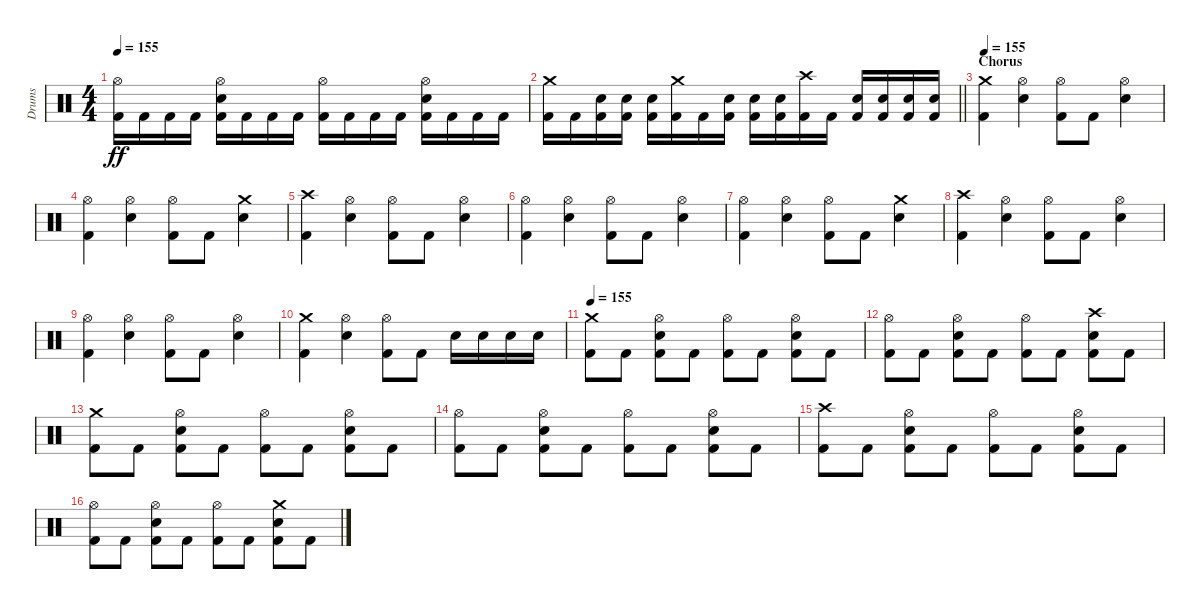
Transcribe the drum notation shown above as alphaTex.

\track ("Drums" "Drums") {solo instrument percussion}
\staff {score}
\articulation defaults
\ts (4 4)
\tempo 155
\clef neutral
\ks c
("Hi-Hat (open)" "Kick (hit) 2").16{dy ff} "Kick (hit) 2".16 "Kick (hit) 2".16 "Kick (hit) 2".16 ("Electric Snare (hit)" "Hi-Hat (open)" "Kick (hit) 2").16 "Kick (hit) 2".16 "Kick (hit) 2".16 "Kick (hit) 2".16 ("Hi-Hat (open)" "Kick (hit) 2").16 "Kick (hit) 2".16 "Kick (hit) 2".16 "Kick (hit) 2".16 ("Electric Snare (hit)" "Hi-Hat (open)" "Kick (hit) 2").16 "Kick (hit) 2".16 "Kick (hit) 2".16 "Kick (hit) 2".16 |
\barLineRight lightlight
("Crash medium (hit)" "Kick (hit) 2").16 "Kick (hit) 2".16 ("Electric Snare (hit)" "Kick (hit) 2").16 ("Electric Snare (hit)" "Kick (hit) 2").16 ("Electric Snare (hit)" "Kick (hit) 2").16 ("Crash medium (hit)" "Kick (hit) 2").16 "Kick (hit) 2".16 ("Electric Snare (hit)" "Kick (hit) 2").16 ("Electric Snare (hit)" "Kick (hit) 2").16 ("Electric Snare (hit)" "Kick (hit) 2").16 ("Crash high (hit)" "Kick (hit) 2").16 "Kick (hit) 2".16 ("Electric Snare (hit)" "Kick (hit) 2").16 ("Electric Snare (hit)" "Kick (hit) 2").16 ("Electric Snare (hit)" "Kick (hit) 2").16 ("Electric Snare (hit)" "Kick (hit) 2").16 |
\section ("" "Chorus")
\tempo 155
("Crash medium (hit)" "Kick (hit) 2").4 ("Hi-Hat (open)" "Electric Snare (hit)").4 ("Hi-Hat (open)" "Kick (hit) 2").8 "Kick (hit) 2".8 ("Hi-Hat (open)" "Electric Snare (hit)").4 |
("Hi-Hat (open)" "Kick (hit) 2").4 ("Hi-Hat (open)" "Electric Snare (hit)").4 ("Hi-Hat (open)" "Kick (hit) 2").8 "Kick (hit) 2".8 ("Crash medium (hit)" "Electric Snare (hit)").4 |
("Crash high (hit)" "Kick (hit) 2").4 ("Hi-Hat (open)" "Electric Snare (hit)").4 ("Hi-Hat (open)" "Kick (hit) 2").8 "Kick (hit) 2".8 ("Hi-Hat (open)" "Electric Snare (hit)").4 |
("Hi-Hat (open)" "Kick (hit) 2").4 ("Hi-Hat (open)" "Electric Snare (hit)").4 ("Hi-Hat (open)" "Kick (hit) 2").8 "Kick (hit) 2".8 ("Hi-Hat (open)" "Electric Snare (hit)").4 |
("Hi-Hat (open)" "Kick (hit) 2").4 ("Hi-Hat (open)" "Electric Snare (hit)").4 ("Hi-Hat (open)" "Kick (hit) 2").8 "Kick (hit) 2".8 ("Crash medium (hit)" "Electric Snare (hit)").4 |
("Crash high (hit)" "Kick (hit) 2").4 ("Hi-Hat (open)" "Electric Snare (hit)").4 ("Hi-Hat (open)" "Kick (hit) 2").8 "Kick (hit) 2".8 ("Hi-Hat (open)" "Electric Snare (hit)").4 |
("Hi-Hat (open)" "Kick (hit) 2").4 ("Hi-Hat (open)" "Electric Snare (hit)").4 ("Hi-Hat (open)" "Kick (hit) 2").8 "Kick (hit) 2".8 ("Hi-Hat (open)" "Electric Snare (hit)").4 |
("Crash medium (hit)" "Kick (hit) 2").4 ("Hi-Hat (open)" "Electric Snare (hit)").4 ("Hi-Hat (open)" "Kick (hit) 2").8 "Kick (hit) 2".8 "Electric Snare (hit)".16 "Electric Snare (hit)".16 "Electric Snare (hit)".16 "Electric Snare (hit)".16 |
\tempo 155
("Crash medium (hit)" "Kick (hit) 2").8 "Kick (hit) 2".8 ("Hi-Hat (open)" "Electric Snare (hit)" "Kick (hit) 2").8 "Kick (hit) 2".8 ("Hi-Hat (open)" "Kick (hit) 2").8 "Kick (hit) 2".8 ("Electric Snare (hit)" "Hi-Hat (open)" "Kick (hit) 2").8 "Kick (hit) 2".8 |
("Hi-Hat (open)" "Kick (hit) 2").8 "Kick (hit) 2".8 ("Hi-Hat (open)" "Electric Snare (hit)" "Kick (hit) 2").8 "Kick (hit) 2".8 ("Hi-Hat (open)" "Kick (hit) 2").8 "Kick (hit) 2".8 ("Electric Snare (hit)" "Crash high (hit)" "Kick (hit) 2").8 "Kick (hit) 2".8 |
("Crash medium (hit)" "Kick (hit) 2").8 "Kick (hit) 2".8 ("Hi-Hat (open)" "Electric Snare (hit)" "Kick (hit) 2").8 "Kick (hit) 2".8 ("Hi-Hat (open)" "Kick (hit) 2").8 "Kick (hit) 2".8 ("Electric Snare (hit)" "Hi-Hat (open)" "Kick (hit) 2").8 "Kick (hit) 2".8 |
("Hi-Hat (open)" "Kick (hit) 2").8 "Kick (hit) 2".8 ("Hi-Hat (open)" "Electric Snare (hit)" "Kick (hit) 2").8 "Kick (hit) 2".8 ("Hi-Hat (open)" "Kick (hit) 2").8 "Kick (hit) 2".8 ("Electric Snare (hit)" "Hi-Hat (open)" "Kick (hit) 2").8 "Kick (hit) 2".8 |
("Crash high (hit)" "Kick (hit) 2").8 "Kick (hit) 2".8 ("Hi-Hat (open)" "Electric Snare (hit)" "Kick (hit) 2").8 "Kick (hit) 2".8 ("Hi-Hat (open)" "Kick (hit) 2").8 "Kick (hit) 2".8 ("Electric Snare (hit)" "Hi-Hat (open)" "Kick (hit) 2").8 "Kick (hit) 2".8 |
("Hi-Hat (open)" "Kick (hit) 2").8 "Kick (hit) 2".8 ("Hi-Hat (open)" "Electric Snare (hit)" "Kick (hit) 2").8 "Kick (hit) 2".8 ("Hi-Hat (open)" "Kick (hit) 2").8 "Kick (hit) 2".8 ("Electric Snare (hit)" "Crash medium (hit)" "Kick (hit) 2").8 "Kick (hit) 2".8
